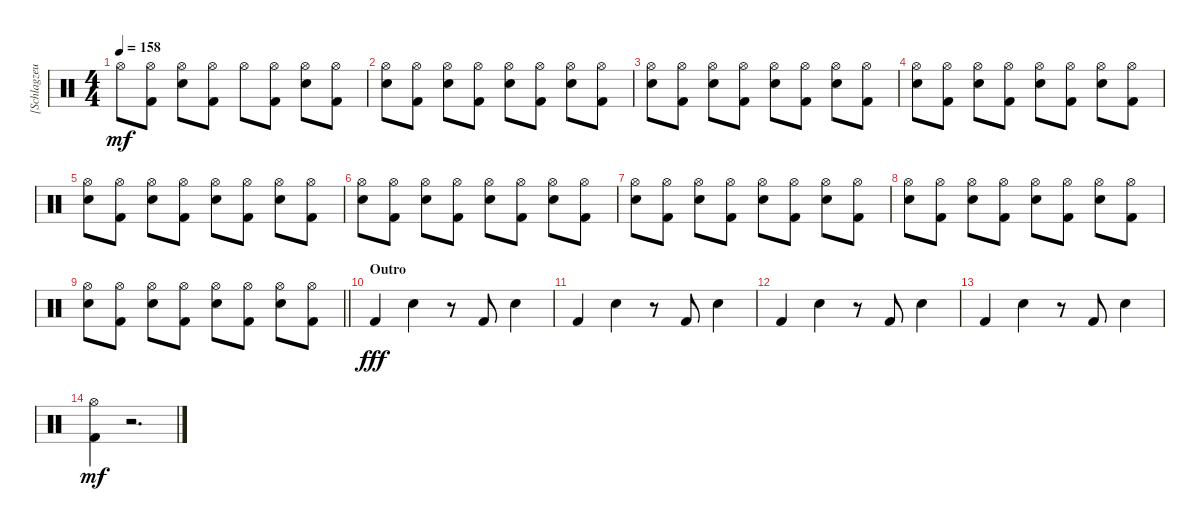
\track ("[Schlagzeug]" "[Schlagzeu") {instrument percussion}
\staff {score}
\articulation defaults
\ts (4 4)
\tempo 158
\clef neutral
\ks c "Hi-Hat (open)".8{dy mf}
("Kick (hit) 2" "Hi-Hat (open)").8 ("Electric Snare (hit)" "Hi-Hat (open)").8 ("Kick (hit) 2" "Hi-Hat (open)").8 "Hi-Hat (open)".8 ("Kick (hit) 2" "Hi-Hat (open)").8 ("Electric Snare (hit)" "Hi-Hat (open)").8 ("Kick (hit) 2" "Hi-Hat (open)").8 |
("Electric Snare (hit)" "Hi-Hat (open)").8 ("Kick (hit) 2" "Hi-Hat (open)").8 ("Electric Snare (hit)" "Hi-Hat (open)").8 ("Kick (hit) 2" "Hi-Hat (open)").8 ("Electric Snare (hit)" "Hi-Hat (open)").8 ("Kick (hit) 2" "Hi-Hat (open)").8 ("Electric Snare (hit)" "Hi-Hat (open)").8 ("Kick (hit) 2" "Hi-Hat (open)").8 |
("Electric Snare (hit)" "Hi-Hat (open)").8 ("Kick (hit) 2" "Hi-Hat (open)").8 ("Electric Snare (hit)" "Hi-Hat (open)").8 ("Kick (hit) 2" "Hi-Hat (open)").8 ("Electric Snare (hit)" "Hi-Hat (open)").8 ("Kick (hit) 2" "Hi-Hat (open)").8 ("Electric Snare (hit)" "Hi-Hat (open)").8 ("Kick (hit) 2" "Hi-Hat (open)").8 |
("Electric Snare (hit)" "Hi-Hat (open)").8 ("Kick (hit) 2" "Hi-Hat (open)").8 ("Electric Snare (hit)" "Hi-Hat (open)").8 ("Kick (hit) 2" "Hi-Hat (open)").8 ("Electric Snare (hit)" "Hi-Hat (open)").8 ("Kick (hit) 2" "Hi-Hat (open)").8 ("Electric Snare (hit)" "Hi-Hat (open)").8 ("Kick (hit) 2" "Hi-Hat (open)").8 |
("Electric Snare (hit)" "Hi-Hat (open)").8 ("Kick (hit) 2" "Hi-Hat (open)").8 ("Electric Snare (hit)" "Hi-Hat (open)").8 ("Kick (hit) 2" "Hi-Hat (open)").8 ("Electric Snare (hit)" "Hi-Hat (open)").8 ("Kick (hit) 2" "Hi-Hat (open)").8 ("Electric Snare (hit)" "Hi-Hat (open)").8 ("Kick (hit) 2" "Hi-Hat (open)").8 |
("Electric Snare (hit)" "Hi-Hat (open)").8 ("Kick (hit) 2" "Hi-Hat (open)").8 ("Electric Snare (hit)" "Hi-Hat (open)").8 ("Kick (hit) 2" "Hi-Hat (open)").8 ("Electric Snare (hit)" "Hi-Hat (open)").8 ("Kick (hit) 2" "Hi-Hat (open)").8 ("Electric Snare (hit)" "Hi-Hat (open)").8 ("Kick (hit) 2" "Hi-Hat (open)").8 |
("Electric Snare (hit)" "Hi-Hat (open)").8 ("Kick (hit) 2" "Hi-Hat (open)").8 ("Electric Snare (hit)" "Hi-Hat (open)").8 ("Kick (hit) 2" "Hi-Hat (open)").8 ("Electric Snare (hit)" "Hi-Hat (open)").8 ("Kick (hit) 2" "Hi-Hat (open)").8 ("Electric Snare (hit)" "Hi-Hat (open)").8 ("Kick (hit) 2" "Hi-Hat (open)").8 |
("Electric Snare (hit)" "Hi-Hat (open)").8 ("Kick (hit) 2" "Hi-Hat (open)").8 ("Electric Snare (hit)" "Hi-Hat (open)").8 ("Kick (hit) 2" "Hi-Hat (open)").8 ("Electric Snare (hit)" "Hi-Hat (open)").8 ("Kick (hit) 2" "Hi-Hat (open)").8 ("Electric Snare (hit)" "Hi-Hat (open)").8 ("Kick (hit) 2" "Hi-Hat (open)").8 |
\barLineRight lightlight
("Electric Snare (hit)" "Hi-Hat (open)").8 ("Kick (hit) 2" "Hi-Hat (open)").8 ("Electric Snare (hit)" "Hi-Hat (open)").8 ("Kick (hit) 2" "Hi-Hat (open)").8 ("Electric Snare (hit)" "Hi-Hat (open)").8 ("Kick (hit) 2" "Hi-Hat (open)").8 ("Electric Snare (hit)" "Hi-Hat (open)").8 ("Kick (hit) 2" "Hi-Hat (open)").8 |
\section ("" "Outro")
"Kick (hit) 2".4{dy fff} "Electric Snare (hit)".4 r.8 "Kick (hit) 2".8 "Electric Snare (hit)".4 |
"Kick (hit) 2".4 "Electric Snare (hit)".4 r.8 "Kick (hit) 2".8 "Electric Snare (hit)".4 |
"Kick (hit) 2".4 "Electric Snare (hit)".4 r.8 "Kick (hit) 2".8 "Electric Snare (hit)".4 |
"Kick (hit) 2".4 "Electric Snare (hit)".4 r.8 "Kick (hit) 2".8 "Electric Snare (hit)".4 |
("Kick (hit) 2" "Hi-Hat (open)").4{dy mf} r.2{d volume 0}
